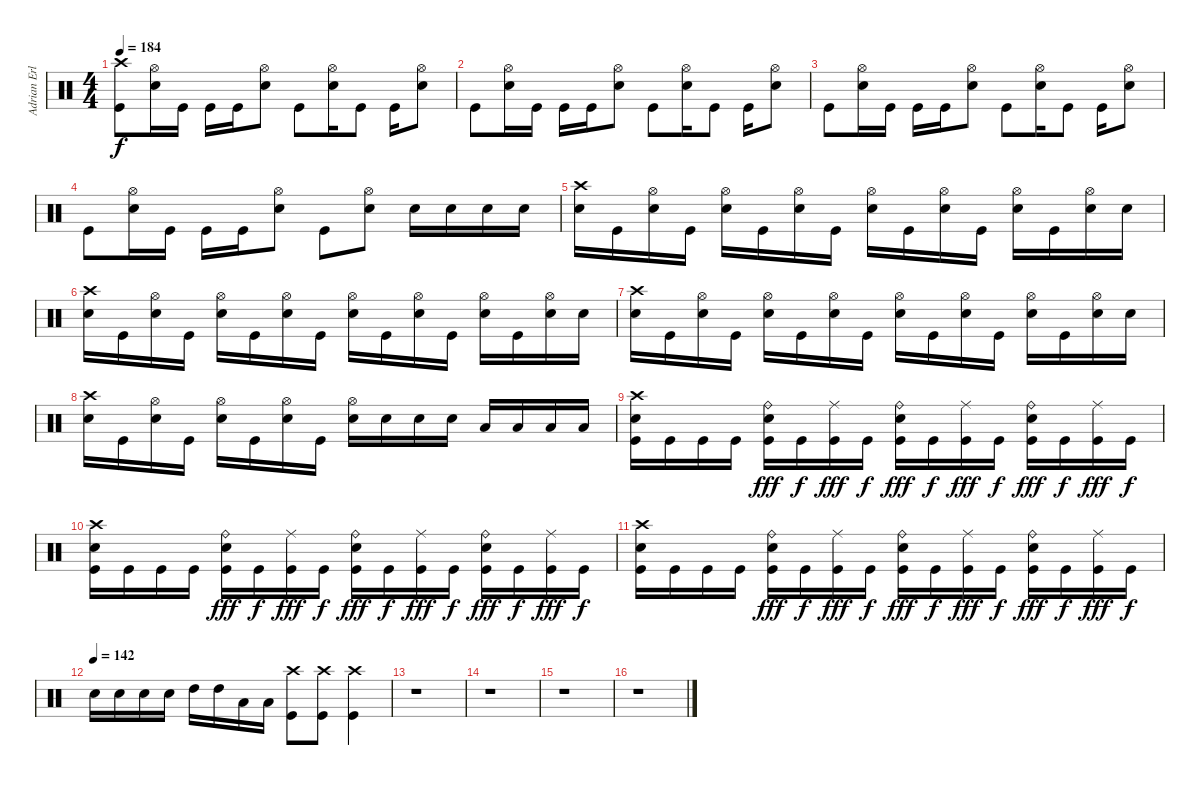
\track ("Adrian Erlandsson (Norseman of the Apoca" "Adrian Erl") {instrument percussion}
\staff {score}
\articulation defaults
\ts (4 4)
\tempo 184
\clef neutral
\ks c
("Crash high (hit)" "Kick (hit)").8{dy f} ("Hi-Hat (open)" "Electric Snare (hit)").16 "Kick (hit)".16 "Kick (hit)".16 "Kick (hit)".16 ("Hi-Hat (open)" "Electric Snare (hit)").8 "Kick (hit)".8 ("Hi-Hat (open)" "Electric Snare (hit)").16 "Kick (hit)".8 "Kick (hit)".16 ("Hi-Hat (open)" "Electric Snare (hit)").8 |
"Kick (hit)".8 ("Hi-Hat (open)" "Electric Snare (hit)").16 "Kick (hit)".16 "Kick (hit)".16 "Kick (hit)".16 ("Hi-Hat (open)" "Electric Snare (hit)").8 "Kick (hit)".8 ("Hi-Hat (open)" "Electric Snare (hit)").16 "Kick (hit)".8 "Kick (hit)".16 ("Hi-Hat (open)" "Electric Snare (hit)").8 |
"Kick (hit)".8 ("Hi-Hat (open)" "Electric Snare (hit)").16 "Kick (hit)".16 "Kick (hit)".16 "Kick (hit)".16 ("Hi-Hat (open)" "Electric Snare (hit)").8 "Kick (hit)".8 ("Hi-Hat (open)" "Electric Snare (hit)").16 "Kick (hit)".8 "Kick (hit)".16 ("Hi-Hat (open)" "Electric Snare (hit)").8 |
"Kick (hit)".8 ("Hi-Hat (open)" "Electric Snare (hit)").16 "Kick (hit)".16 "Kick (hit)".16 "Kick (hit)".16 ("Hi-Hat (open)" "Electric Snare (hit)").8 "Kick (hit)".8 ("Hi-Hat (open)" "Electric Snare (hit)").8 "Electric Snare (hit)".16 "Electric Snare (hit)".16 "Electric Snare (hit)".16 "Electric Snare (hit)".16 |
("Crash high (hit)" "Electric Snare (hit)").16 "Kick (hit)".16 ("Hi-Hat (open)" "Electric Snare (hit)").16 "Kick (hit)".16 ("Hi-Hat (open)" "Electric Snare (hit)").16 "Kick (hit)".16 ("Hi-Hat (open)" "Electric Snare (hit)").16 "Kick (hit)".16 ("Hi-Hat (open)" "Electric Snare (hit)").16 "Kick (hit)".16 ("Hi-Hat (open)" "Electric Snare (hit)").16 "Kick (hit)".16 ("Hi-Hat (open)" "Electric Snare (hit)").16 "Kick (hit)".16 ("Hi-Hat (open)" "Electric Snare (hit)").16 "Electric Snare (hit)".16 |
("Crash high (hit)" "Electric Snare (hit)").16 "Kick (hit)".16 ("Hi-Hat (open)" "Electric Snare (hit)").16 "Kick (hit)".16 ("Hi-Hat (open)" "Electric Snare (hit)").16 "Kick (hit)".16 ("Hi-Hat (open)" "Electric Snare (hit)").16 "Kick (hit)".16 ("Hi-Hat (open)" "Electric Snare (hit)").16 "Kick (hit)".16 ("Hi-Hat (open)" "Electric Snare (hit)").16 "Kick (hit)".16 ("Hi-Hat (open)" "Electric Snare (hit)").16 "Kick (hit)".16 ("Hi-Hat (open)" "Electric Snare (hit)").16 "Electric Snare (hit)".16 |
("Crash high (hit)" "Electric Snare (hit)").16 "Kick (hit)".16 ("Hi-Hat (open)" "Electric Snare (hit)").16 "Kick (hit)".16 ("Hi-Hat (open)" "Electric Snare (hit)").16 "Kick (hit)".16 ("Hi-Hat (open)" "Electric Snare (hit)").16 "Kick (hit)".16 ("Hi-Hat (open)" "Electric Snare (hit)").16 "Kick (hit)".16 ("Hi-Hat (open)" "Electric Snare (hit)").16 "Kick (hit)".16 ("Hi-Hat (open)" "Electric Snare (hit)").16 "Kick (hit)".16 ("Hi-Hat (open)" "Electric Snare (hit)").16 "Electric Snare (hit)".16 |
("Crash high (hit)" "Electric Snare (hit)").16 "Kick (hit)".16 ("Hi-Hat (open)" "Electric Snare (hit)").16 "Kick (hit)".16 ("Hi-Hat (open)" "Electric Snare (hit)").16 "Kick (hit)".16 ("Hi-Hat (open)" "Electric Snare (hit)").16 "Kick (hit)".16 ("Hi-Hat (open)" "Electric Snare (hit)").16 "Electric Snare (hit)".16 "Electric Snare (hit)".16 "Electric Snare (hit)".16 "Low Tom (hit)".16 "Low Tom (hit)".16 "Low Tom (hit)".16 "Low Tom (hit)".16 |
("Crash high (hit)" "Electric Snare (hit)" "Kick (hit)").16 "Kick (hit)".16 "Kick (hit)".16 "Kick (hit)".16 ("Ride (bell)" "Electric Snare (hit)" "Kick (hit)").16{dy fff} "Kick (hit)".16{dy f} ("Ride (middle)" "Kick (hit)").16{dy fff} "Kick (hit)".16{dy f} ("Ride (bell)" "Electric Snare (hit)" "Kick (hit)").16{dy fff} "Kick (hit)".16{dy f} ("Ride (middle)" "Kick (hit)").16{dy fff} "Kick (hit)".16{dy f} ("Ride (bell)" "Electric Snare (hit)" "Kick (hit)").16{dy fff} "Kick (hit)".16{dy f} ("Ride (middle)" "Kick (hit)").16{dy fff} "Kick (hit)".16{dy f} |
("Crash high (hit)" "Electric Snare (hit)" "Kick (hit)").16 "Kick (hit)".16 "Kick (hit)".16 "Kick (hit)".16 ("Ride (bell)" "Electric Snare (hit)" "Kick (hit)").16{dy fff} "Kick (hit)".16{dy f} ("Ride (middle)" "Kick (hit)").16{dy fff} "Kick (hit)".16{dy f} ("Ride (bell)" "Electric Snare (hit)" "Kick (hit)").16{dy fff} "Kick (hit)".16{dy f} ("Ride (middle)" "Kick (hit)").16{dy fff} "Kick (hit)".16{dy f} ("Ride (bell)" "Electric Snare (hit)" "Kick (hit)").16{dy fff} "Kick (hit)".16{dy f} ("Ride (middle)" "Kick (hit)").16{dy fff} "Kick (hit)".16{dy f} |
("Crash high (hit)" "Electric Snare (hit)" "Kick (hit)").16 "Kick (hit)".16 "Kick (hit)".16 "Kick (hit)".16 ("Ride (bell)" "Electric Snare (hit)" "Kick (hit)").16{dy fff} "Kick (hit)".16{dy f} ("Ride (middle)" "Kick (hit)").16{dy fff} "Kick (hit)".16{dy f} ("Ride (bell)" "Electric Snare (hit)" "Kick (hit)").16{dy fff} "Kick (hit)".16{dy f} ("Ride (middle)" "Kick (hit)").16{dy fff} "Kick (hit)".16{dy f} ("Ride (bell)" "Electric Snare (hit)" "Kick (hit)").16{dy fff} "Kick (hit)".16{dy f} ("Ride (middle)" "Kick (hit)").16{dy fff} "Kick (hit)".16{dy f} |
\tempo (142)
"Electric Snare (hit)".16 "Electric Snare (hit)".16 "Electric Snare (hit)".16 "Electric Snare (hit)".16 "High Tom (hit)".16 "High Tom (hit)".16 "Low Tom (hit)".16 "Low Tom (hit)".16 ("Crash high (hit)" "Kick (hit)").8 ("Crash high (hit)" "Kick (hit)").8 ("Crash high (hit)" "Kick (hit)").4 |
r.1 |
r.1 |
r.1 |
r.1
